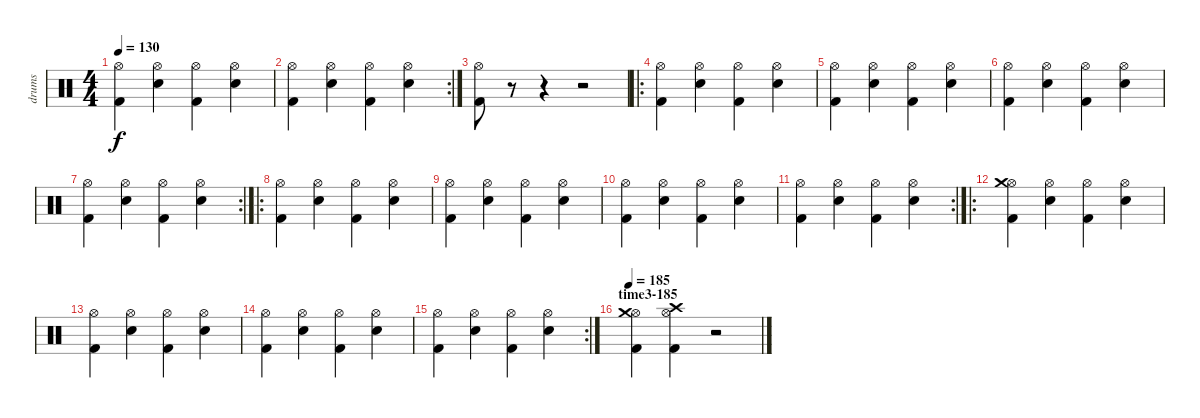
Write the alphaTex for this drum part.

\track ("drums" "drums") {instrument percussion}
\staff {score}
\articulation defaults
\ts (4 4)
\tempo 130
\clef neutral
\ks c
("Kick (hit) 2" "Hi-Hat (open)").4{dy f} ("Electric Snare (hit)" "Hi-Hat (open)").4 ("Kick (hit) 2" "Hi-Hat (open)").4 ("Electric Snare (hit)" "Hi-Hat (open)").4 |
\rc 2
("Kick (hit) 2" "Hi-Hat (open)").4 ("Electric Snare (hit)" "Hi-Hat (open)").4 ("Kick (hit) 2" "Hi-Hat (open)").4 ("Electric Snare (hit)" "Hi-Hat (open)").4 |
("Kick (hit) 2" "Hi-Hat (open)").8 r.8 r.4 r.2 |
\ro
("Kick (hit) 2" "Hi-Hat (open)").4 ("Electric Snare (hit)" "Hi-Hat (open)").4 ("Kick (hit) 2" "Hi-Hat (open)").4 ("Electric Snare (hit)" "Hi-Hat (open)").4 |
("Kick (hit) 2" "Hi-Hat (open)").4 ("Electric Snare (hit)" "Hi-Hat (open)").4 ("Kick (hit) 2" "Hi-Hat (open)").4 ("Electric Snare (hit)" "Hi-Hat (open)").4 |
("Kick (hit) 2" "Hi-Hat (open)").4 ("Electric Snare (hit)" "Hi-Hat (open)").4 ("Kick (hit) 2" "Hi-Hat (open)").4 ("Electric Snare (hit)" "Hi-Hat (open)").4 |
\rc 2
("Kick (hit) 2" "Hi-Hat (open)").4 ("Electric Snare (hit)" "Hi-Hat (open)").4 ("Kick (hit) 2" "Hi-Hat (open)").4 ("Electric Snare (hit)" "Hi-Hat (open)").4 |
\ro
("Kick (hit) 2" "Hi-Hat (open)").4 ("Electric Snare (hit)" "Hi-Hat (open)").4 ("Kick (hit) 2" "Hi-Hat (open)").4 ("Electric Snare (hit)" "Hi-Hat (open)").4 |
("Kick (hit) 2" "Hi-Hat (open)").4 ("Electric Snare (hit)" "Hi-Hat (open)").4 ("Kick (hit) 2" "Hi-Hat (open)").4 ("Electric Snare (hit)" "Hi-Hat (open)").4 |
("Kick (hit) 2" "Hi-Hat (open)").4 ("Electric Snare (hit)" "Hi-Hat (open)").4 ("Kick (hit) 2" "Hi-Hat (open)").4 ("Electric Snare (hit)" "Hi-Hat (open)").4 |
\rc 2
("Kick (hit) 2" "Hi-Hat (open)").4 ("Electric Snare (hit)" "Hi-Hat (open)").4 ("Kick (hit) 2" "Hi-Hat (open)").4 ("Electric Snare (hit)" "Hi-Hat (open)").4 |
\ro
("Kick (hit) 2" "Hi-Hat (open)" "Crash medium (hit)").4 ("Electric Snare (hit)" "Hi-Hat (open)").4 ("Kick (hit) 2" "Hi-Hat (open)").4 ("Electric Snare (hit)" "Hi-Hat (open)").4 |
("Kick (hit) 2" "Hi-Hat (open)").4 ("Electric Snare (hit)" "Hi-Hat (open)").4 ("Kick (hit) 2" "Hi-Hat (open)").4 ("Electric Snare (hit)" "Hi-Hat (open)").4 |
("Kick (hit) 2" "Hi-Hat (open)").4 ("Electric Snare (hit)" "Hi-Hat (open)").4 ("Kick (hit) 2" "Hi-Hat (open)").4 ("Electric Snare (hit)" "Hi-Hat (open)").4 |
\rc 2
("Kick (hit) 2" "Hi-Hat (open)").4 ("Electric Snare (hit)" "Hi-Hat (open)").4 ("Kick (hit) 2" "Hi-Hat (open)").4 ("Electric Snare (hit)" "Hi-Hat (open)").4 |
\section ("" "time3-185")
\tempo 185
("Kick (hit) 2" "Hi-Hat (open)" "Crash medium (hit)").4 ("Kick (hit) 2" "Hi-Hat (open)" "Crash high (hit)").4 r.2
